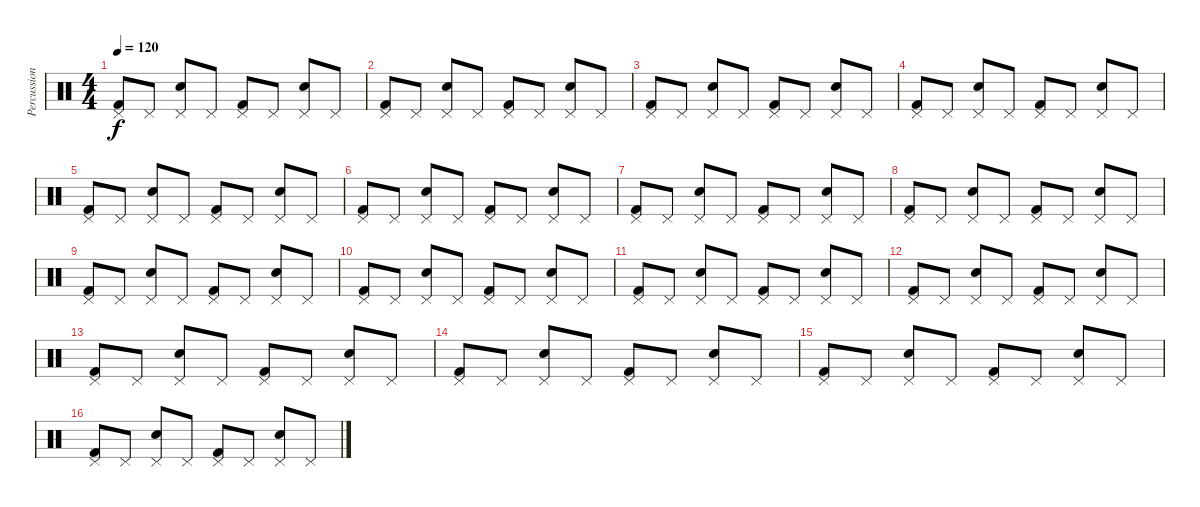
\track ("Percussion" "Percussion") {instrument percussion}
\staff {score}
\articulation defaults
\ts (4 4)
\tempo 120
\clef neutral
\ks c
("Pedal Hi-Hat (hit)" "Kick (hit) 2").8{dy f} "Pedal Hi-Hat (hit)".8 ("Pedal Hi-Hat (hit)" "Snare (hit) 2").8 "Pedal Hi-Hat (hit)".8 ("Pedal Hi-Hat (hit)" "Kick (hit) 2").8 "Pedal Hi-Hat (hit)".8 ("Pedal Hi-Hat (hit)" "Snare (hit) 2").8 "Pedal Hi-Hat (hit)".8 |
("Pedal Hi-Hat (hit)" "Kick (hit) 2").8 "Pedal Hi-Hat (hit)".8 ("Pedal Hi-Hat (hit)" "Snare (hit) 2").8 "Pedal Hi-Hat (hit)".8 ("Pedal Hi-Hat (hit)" "Kick (hit) 2").8 "Pedal Hi-Hat (hit)".8 ("Pedal Hi-Hat (hit)" "Snare (hit) 2").8 "Pedal Hi-Hat (hit)".8 |
("Pedal Hi-Hat (hit)" "Kick (hit) 2").8 "Pedal Hi-Hat (hit)".8 ("Pedal Hi-Hat (hit)" "Snare (hit) 2").8 "Pedal Hi-Hat (hit)".8 ("Pedal Hi-Hat (hit)" "Kick (hit) 2").8 "Pedal Hi-Hat (hit)".8 ("Pedal Hi-Hat (hit)" "Snare (hit) 2").8 "Pedal Hi-Hat (hit)".8 |
("Pedal Hi-Hat (hit)" "Kick (hit) 2").8 "Pedal Hi-Hat (hit)".8 ("Pedal Hi-Hat (hit)" "Snare (hit) 2").8 "Pedal Hi-Hat (hit)".8 ("Pedal Hi-Hat (hit)" "Kick (hit) 2").8 "Pedal Hi-Hat (hit)".8 ("Pedal Hi-Hat (hit)" "Snare (hit) 2").8 "Pedal Hi-Hat (hit)".8 |
("Pedal Hi-Hat (hit)" "Kick (hit) 2").8 "Pedal Hi-Hat (hit)".8 ("Pedal Hi-Hat (hit)" "Snare (hit) 2").8 "Pedal Hi-Hat (hit)".8 ("Pedal Hi-Hat (hit)" "Kick (hit) 2").8 "Pedal Hi-Hat (hit)".8 ("Pedal Hi-Hat (hit)" "Snare (hit) 2").8 "Pedal Hi-Hat (hit)".8 |
("Pedal Hi-Hat (hit)" "Kick (hit) 2").8 "Pedal Hi-Hat (hit)".8 ("Pedal Hi-Hat (hit)" "Snare (hit) 2").8 "Pedal Hi-Hat (hit)".8 ("Pedal Hi-Hat (hit)" "Kick (hit) 2").8 "Pedal Hi-Hat (hit)".8 ("Pedal Hi-Hat (hit)" "Snare (hit) 2").8 "Pedal Hi-Hat (hit)".8 |
("Pedal Hi-Hat (hit)" "Kick (hit) 2").8 "Pedal Hi-Hat (hit)".8 ("Pedal Hi-Hat (hit)" "Snare (hit) 2").8 "Pedal Hi-Hat (hit)".8 ("Pedal Hi-Hat (hit)" "Kick (hit) 2").8 "Pedal Hi-Hat (hit)".8 ("Pedal Hi-Hat (hit)" "Snare (hit) 2").8 "Pedal Hi-Hat (hit)".8 |
("Pedal Hi-Hat (hit)" "Kick (hit) 2").8 "Pedal Hi-Hat (hit)".8 ("Pedal Hi-Hat (hit)" "Snare (hit) 2").8 "Pedal Hi-Hat (hit)".8 ("Pedal Hi-Hat (hit)" "Kick (hit) 2").8 "Pedal Hi-Hat (hit)".8 ("Pedal Hi-Hat (hit)" "Snare (hit) 2").8 "Pedal Hi-Hat (hit)".8 |
("Pedal Hi-Hat (hit)" "Kick (hit) 2").8 "Pedal Hi-Hat (hit)".8 ("Pedal Hi-Hat (hit)" "Snare (hit) 2").8 "Pedal Hi-Hat (hit)".8 ("Pedal Hi-Hat (hit)" "Kick (hit) 2").8 "Pedal Hi-Hat (hit)".8 ("Pedal Hi-Hat (hit)" "Snare (hit) 2").8 "Pedal Hi-Hat (hit)".8 |
("Pedal Hi-Hat (hit)" "Kick (hit) 2").8 "Pedal Hi-Hat (hit)".8 ("Pedal Hi-Hat (hit)" "Snare (hit) 2").8 "Pedal Hi-Hat (hit)".8 ("Pedal Hi-Hat (hit)" "Kick (hit) 2").8 "Pedal Hi-Hat (hit)".8 ("Pedal Hi-Hat (hit)" "Snare (hit) 2").8 "Pedal Hi-Hat (hit)".8 |
("Pedal Hi-Hat (hit)" "Kick (hit) 2").8 "Pedal Hi-Hat (hit)".8 ("Pedal Hi-Hat (hit)" "Snare (hit) 2").8 "Pedal Hi-Hat (hit)".8 ("Pedal Hi-Hat (hit)" "Kick (hit) 2").8 "Pedal Hi-Hat (hit)".8 ("Pedal Hi-Hat (hit)" "Snare (hit) 2").8 "Pedal Hi-Hat (hit)".8 |
("Pedal Hi-Hat (hit)" "Kick (hit) 2").8 "Pedal Hi-Hat (hit)".8 ("Pedal Hi-Hat (hit)" "Snare (hit) 2").8 "Pedal Hi-Hat (hit)".8 ("Pedal Hi-Hat (hit)" "Kick (hit) 2").8 "Pedal Hi-Hat (hit)".8 ("Pedal Hi-Hat (hit)" "Snare (hit) 2").8 "Pedal Hi-Hat (hit)".8 |
("Pedal Hi-Hat (hit)" "Kick (hit) 2").8 "Pedal Hi-Hat (hit)".8 ("Pedal Hi-Hat (hit)" "Snare (hit) 2").8 "Pedal Hi-Hat (hit)".8 ("Pedal Hi-Hat (hit)" "Kick (hit) 2").8 "Pedal Hi-Hat (hit)".8 ("Pedal Hi-Hat (hit)" "Snare (hit) 2").8 "Pedal Hi-Hat (hit)".8 |
("Pedal Hi-Hat (hit)" "Kick (hit) 2").8 "Pedal Hi-Hat (hit)".8 ("Pedal Hi-Hat (hit)" "Snare (hit) 2").8 "Pedal Hi-Hat (hit)".8 ("Pedal Hi-Hat (hit)" "Kick (hit) 2").8 "Pedal Hi-Hat (hit)".8 ("Pedal Hi-Hat (hit)" "Snare (hit) 2").8 "Pedal Hi-Hat (hit)".8 |
("Pedal Hi-Hat (hit)" "Kick (hit) 2").8 "Pedal Hi-Hat (hit)".8 ("Pedal Hi-Hat (hit)" "Snare (hit) 2").8 "Pedal Hi-Hat (hit)".8 ("Pedal Hi-Hat (hit)" "Kick (hit) 2").8 "Pedal Hi-Hat (hit)".8 ("Pedal Hi-Hat (hit)" "Snare (hit) 2").8 "Pedal Hi-Hat (hit)".8 |
("Pedal Hi-Hat (hit)" "Kick (hit) 2").8 "Pedal Hi-Hat (hit)".8 ("Pedal Hi-Hat (hit)" "Snare (hit) 2").8 "Pedal Hi-Hat (hit)".8 ("Pedal Hi-Hat (hit)" "Kick (hit) 2").8 "Pedal Hi-Hat (hit)".8 ("Pedal Hi-Hat (hit)" "Snare (hit) 2").8 "Pedal Hi-Hat (hit)".8
